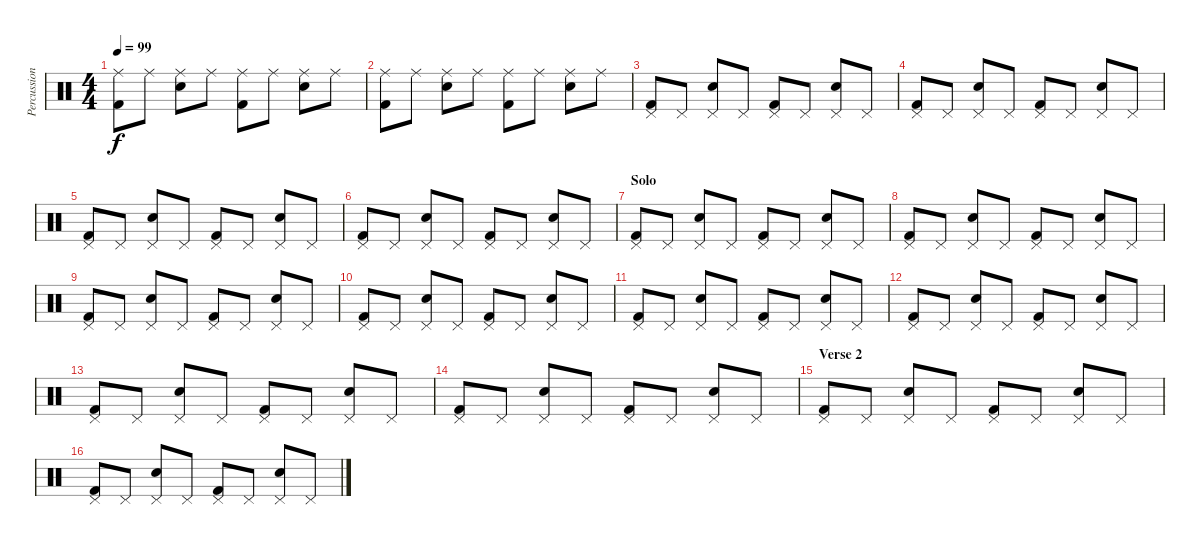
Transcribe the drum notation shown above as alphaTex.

\track ("Percussion" "Percussion") {instrument percussion}
\staff {score}
\articulation defaults
\ts (4 4)
\tempo 99
\clef neutral
\ks c
("Ride (middle)" "Kick (hit) 2").8{dy f} "Ride (middle)".8 ("Ride (middle)" "Electric Snare (hit)").8 "Ride (middle)".8 ("Ride (middle)" "Kick (hit) 2").8 "Ride (middle)".8 ("Ride (middle)" "Electric Snare (hit)").8 "Ride (middle)".8 |
("Ride (middle)" "Kick (hit) 2").8 "Ride (middle)".8 ("Ride (middle)" "Electric Snare (hit)").8 "Ride (middle)".8 ("Ride (middle)" "Kick (hit) 2").8 "Ride (middle)".8 ("Ride (middle)" "Electric Snare (hit)").8 "Ride (middle)".8 |
("Pedal Hi-Hat (hit)" "Kick (hit) 2").8 "Pedal Hi-Hat (hit)".8 ("Pedal Hi-Hat (hit)" "Electric Snare (hit)").8 "Pedal Hi-Hat (hit)".8 ("Pedal Hi-Hat (hit)" "Kick (hit) 2").8 "Pedal Hi-Hat (hit)".8 ("Pedal Hi-Hat (hit)" "Electric Snare (hit)").8 "Pedal Hi-Hat (hit)".8 |
("Pedal Hi-Hat (hit)" "Kick (hit) 2").8 "Pedal Hi-Hat (hit)".8 ("Pedal Hi-Hat (hit)" "Electric Snare (hit)").8 "Pedal Hi-Hat (hit)".8 ("Pedal Hi-Hat (hit)" "Kick (hit) 2").8 "Pedal Hi-Hat (hit)".8 ("Pedal Hi-Hat (hit)" "Electric Snare (hit)").8 "Pedal Hi-Hat (hit)".8 |
("Pedal Hi-Hat (hit)" "Kick (hit) 2").8 "Pedal Hi-Hat (hit)".8 ("Pedal Hi-Hat (hit)" "Electric Snare (hit)").8 "Pedal Hi-Hat (hit)".8 ("Pedal Hi-Hat (hit)" "Kick (hit) 2").8 "Pedal Hi-Hat (hit)".8 ("Pedal Hi-Hat (hit)" "Electric Snare (hit)").8 "Pedal Hi-Hat (hit)".8 |
("Pedal Hi-Hat (hit)" "Kick (hit) 2").8 "Pedal Hi-Hat (hit)".8 ("Pedal Hi-Hat (hit)" "Electric Snare (hit)").8 "Pedal Hi-Hat (hit)".8 ("Pedal Hi-Hat (hit)" "Kick (hit) 2").8 "Pedal Hi-Hat (hit)".8 ("Pedal Hi-Hat (hit)" "Electric Snare (hit)").8 "Pedal Hi-Hat (hit)".8 |
\section ("" "Solo")
("Pedal Hi-Hat (hit)" "Kick (hit) 2").8 "Pedal Hi-Hat (hit)".8 ("Pedal Hi-Hat (hit)" "Electric Snare (hit)").8 "Pedal Hi-Hat (hit)".8 ("Pedal Hi-Hat (hit)" "Kick (hit) 2").8 "Pedal Hi-Hat (hit)".8 ("Pedal Hi-Hat (hit)" "Electric Snare (hit)").8 "Pedal Hi-Hat (hit)".8 |
("Pedal Hi-Hat (hit)" "Kick (hit) 2").8 "Pedal Hi-Hat (hit)".8 ("Pedal Hi-Hat (hit)" "Electric Snare (hit)").8 "Pedal Hi-Hat (hit)".8 ("Pedal Hi-Hat (hit)" "Kick (hit) 2").8 "Pedal Hi-Hat (hit)".8 ("Pedal Hi-Hat (hit)" "Electric Snare (hit)").8 "Pedal Hi-Hat (hit)".8 |
("Pedal Hi-Hat (hit)" "Kick (hit) 2").8 "Pedal Hi-Hat (hit)".8 ("Pedal Hi-Hat (hit)" "Electric Snare (hit)").8 "Pedal Hi-Hat (hit)".8 ("Pedal Hi-Hat (hit)" "Kick (hit) 2").8 "Pedal Hi-Hat (hit)".8 ("Pedal Hi-Hat (hit)" "Electric Snare (hit)").8 "Pedal Hi-Hat (hit)".8 |
("Pedal Hi-Hat (hit)" "Kick (hit) 2").8 "Pedal Hi-Hat (hit)".8 ("Pedal Hi-Hat (hit)" "Electric Snare (hit)").8 "Pedal Hi-Hat (hit)".8 ("Pedal Hi-Hat (hit)" "Kick (hit) 2").8 "Pedal Hi-Hat (hit)".8 ("Pedal Hi-Hat (hit)" "Electric Snare (hit)").8 "Pedal Hi-Hat (hit)".8 |
("Pedal Hi-Hat (hit)" "Kick (hit) 2").8 "Pedal Hi-Hat (hit)".8 ("Pedal Hi-Hat (hit)" "Electric Snare (hit)").8 "Pedal Hi-Hat (hit)".8 ("Pedal Hi-Hat (hit)" "Kick (hit) 2").8 "Pedal Hi-Hat (hit)".8 ("Pedal Hi-Hat (hit)" "Electric Snare (hit)").8 "Pedal Hi-Hat (hit)".8 |
("Pedal Hi-Hat (hit)" "Kick (hit) 2").8 "Pedal Hi-Hat (hit)".8 ("Pedal Hi-Hat (hit)" "Electric Snare (hit)").8 "Pedal Hi-Hat (hit)".8 ("Pedal Hi-Hat (hit)" "Kick (hit) 2").8 "Pedal Hi-Hat (hit)".8 ("Pedal Hi-Hat (hit)" "Electric Snare (hit)").8 "Pedal Hi-Hat (hit)".8 |
("Pedal Hi-Hat (hit)" "Kick (hit) 2").8 "Pedal Hi-Hat (hit)".8 ("Pedal Hi-Hat (hit)" "Electric Snare (hit)").8 "Pedal Hi-Hat (hit)".8 ("Pedal Hi-Hat (hit)" "Kick (hit) 2").8 "Pedal Hi-Hat (hit)".8 ("Pedal Hi-Hat (hit)" "Electric Snare (hit)").8 "Pedal Hi-Hat (hit)".8 |
("Pedal Hi-Hat (hit)" "Kick (hit) 2").8 "Pedal Hi-Hat (hit)".8 ("Pedal Hi-Hat (hit)" "Electric Snare (hit)").8 "Pedal Hi-Hat (hit)".8 ("Pedal Hi-Hat (hit)" "Kick (hit) 2").8 "Pedal Hi-Hat (hit)".8 ("Pedal Hi-Hat (hit)" "Electric Snare (hit)").8 "Pedal Hi-Hat (hit)".8 |
\section ("" "Verse 2")
("Pedal Hi-Hat (hit)" "Kick (hit) 2").8 "Pedal Hi-Hat (hit)".8 ("Pedal Hi-Hat (hit)" "Electric Snare (hit)").8 "Pedal Hi-Hat (hit)".8 ("Pedal Hi-Hat (hit)" "Kick (hit) 2").8 "Pedal Hi-Hat (hit)".8 ("Pedal Hi-Hat (hit)" "Electric Snare (hit)").8 "Pedal Hi-Hat (hit)".8 |
("Pedal Hi-Hat (hit)" "Kick (hit) 2").8 "Pedal Hi-Hat (hit)".8 ("Pedal Hi-Hat (hit)" "Electric Snare (hit)").8 "Pedal Hi-Hat (hit)".8 ("Pedal Hi-Hat (hit)" "Kick (hit) 2").8 "Pedal Hi-Hat (hit)".8 ("Pedal Hi-Hat (hit)" "Electric Snare (hit)").8 "Pedal Hi-Hat (hit)".8
